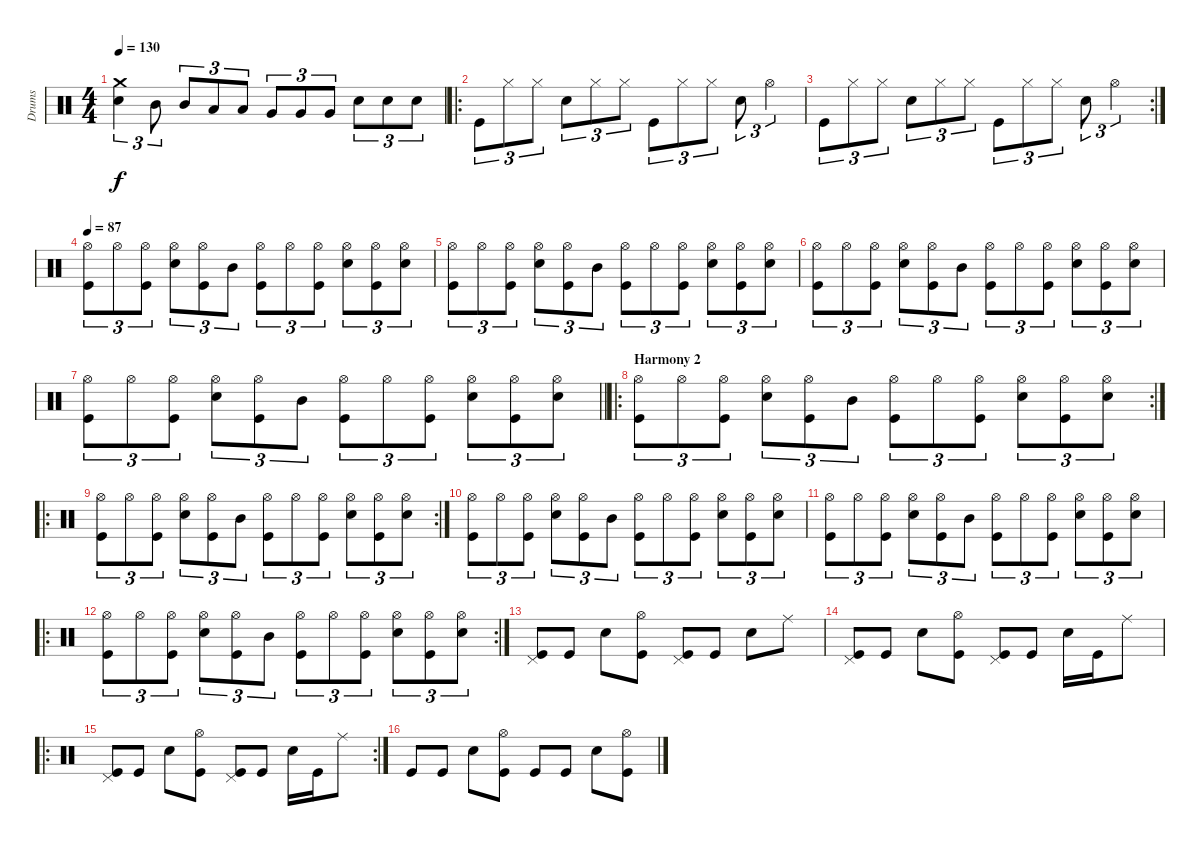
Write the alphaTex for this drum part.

\track ("Drums" "Drums") {instrument percussion}
\staff {score}
\articulation defaults
\ts (4 4)
\tempo 130
\clef neutral
\ks c
("Crash medium (hit)" "Snare (hit) 2").4{tu (3 2) dy f} "Mid Tom (hit)".8{tu (3 2)} "Mid Tom (hit)".8{tu (3 2)} "Low Tom (hit)".8{tu (3 2)} "Low Tom (hit)".8{tu (3 2)} "Very Low Tom (hit)".8{tu (3 2)} "Very Low Tom (hit)".8{tu (3 2)} "Very Low Tom (hit)".8{tu (3 2)} "Snare (hit) 2".8{tu (3 2)} "Snare (hit) 2".8{tu (3 2)} "Snare (hit) 2".8{tu (3 2)} |
\ro "Kick (hit)".8{tu (3 2)} "Hi-Hat (closed)".8{tu (3 2)} "Hi-Hat (closed)".8{tu (3 2)} "Snare (hit) 2".8{tu (3 2)} "Hi-Hat (closed)".8{tu (3 2)} "Hi-Hat (closed)".8{tu (3 2)} "Kick (hit)".8{tu (3 2)} "Hi-Hat (closed)".8{tu (3 2)} "Hi-Hat (closed)".8{tu (3 2)} "Snare (hit) 2".8{tu (3 2)} "Hi-Hat (open)".4{tu (3 2)}
|
\rc 2 "Kick (hit)".8{tu (3 2)} "Hi-Hat (closed)".8{tu (3 2)} "Hi-Hat (closed)".8{tu (3 2)} "Snare (hit) 2".8{tu (3 2)} "Hi-Hat (closed)".8{tu (3 2)} "Hi-Hat (closed)".8{tu (3 2)} "Kick (hit)".8{tu (3 2)} "Hi-Hat (closed)".8{tu (3 2)} "Hi-Hat (closed)".8{tu (3 2)} "Snare (hit) 2".8{tu (3 2)} "Hi-Hat (open)".4{tu (3 2)}
|
\tempo 87
("Hi-Hat (open)" "Kick (hit)").8{tu (3 2)} "Hi-Hat (open)".8{tu (3 2)} ("Hi-Hat (open)" "Kick (hit)").8{tu (3 2)} ("Hi-Hat (open)" "Snare (hit) 2").8{tu (3 2)} ("Hi-Hat (open)" "Kick (hit)").8{tu (3 2)} "Mid Tom (hit)".8{tu (3 2)} ("Hi-Hat (open)" "Kick (hit)").8{tu (3 2)} "Hi-Hat (open)".8{tu (3 2)} ("Hi-Hat (open)" "Kick (hit)").8{tu (3 2)} ("Hi-Hat (open)" "Snare (hit) 2").8{tu (3 2)} ("Hi-Hat (open)" "Kick (hit)").8{tu (3 2)} ("Hi-Hat (open)" "Snare (hit) 2").8{tu (3 2)} |
("Hi-Hat (open)" "Kick (hit)").8{tu (3 2)} "Hi-Hat (open)".8{tu (3 2)} ("Hi-Hat (open)" "Kick (hit)").8{tu (3 2)} ("Hi-Hat (open)" "Snare (hit) 2").8{tu (3 2)} ("Hi-Hat (open)" "Kick (hit)").8{tu (3 2)} "Mid Tom (hit)".8{tu (3 2)} ("Hi-Hat (open)" "Kick (hit)").8{tu (3 2)} "Hi-Hat (open)".8{tu (3 2)} ("Hi-Hat (open)" "Kick (hit)").8{tu (3 2)} ("Hi-Hat (open)" "Snare (hit) 2").8{tu (3 2)} ("Hi-Hat (open)" "Kick (hit)").8{tu (3 2)} ("Hi-Hat (open)" "Snare (hit) 2").8{tu (3 2)} |
("Hi-Hat (open)" "Kick (hit)").8{tu (3 2)} "Hi-Hat (open)".8{tu (3 2)} ("Hi-Hat (open)" "Kick (hit)").8{tu (3 2)} ("Hi-Hat (open)" "Snare (hit) 2").8{tu (3 2)} ("Hi-Hat (open)" "Kick (hit)").8{tu (3 2)} "Mid Tom (hit)".8{tu (3 2)} ("Hi-Hat (open)" "Kick (hit)").8{tu (3 2)} "Hi-Hat (open)".8{tu (3 2)} ("Hi-Hat (open)" "Kick (hit)").8{tu (3 2)} ("Hi-Hat (open)" "Snare (hit) 2").8{tu (3 2)} ("Hi-Hat (open)" "Kick (hit)").8{tu (3 2)} ("Hi-Hat (open)" "Snare (hit) 2").8{tu (3 2)} |
\barLineRight lightlight
("Hi-Hat (open)" "Kick (hit)").8{tu (3 2)} "Hi-Hat (open)".8{tu (3 2)} ("Hi-Hat (open)" "Kick (hit)").8{tu (3 2)} ("Hi-Hat (open)" "Snare (hit) 2").8{tu (3 2)} ("Hi-Hat (open)" "Kick (hit)").8{tu (3 2)} "Mid Tom (hit)".8{tu (3 2)} ("Hi-Hat (open)" "Kick (hit)").8{tu (3 2)} "Hi-Hat (open)".8{tu (3 2)} ("Hi-Hat (open)" "Kick (hit)").8{tu (3 2)} ("Hi-Hat (open)" "Snare (hit) 2").8{tu (3 2)} ("Hi-Hat (open)" "Kick (hit)").8{tu (3 2)} ("Hi-Hat (open)" "Snare (hit) 2").8{tu (3 2)} |
\ro
\rc 2
\section ("" "Harmony 2")
("Hi-Hat (open)" "Kick (hit)").8{tu (3 2)} "Hi-Hat (open)".8{tu (3 2)} ("Hi-Hat (open)" "Kick (hit)").8{tu (3 2)} ("Hi-Hat (open)" "Snare (hit) 2").8{tu (3 2)} ("Hi-Hat (open)" "Kick (hit)").8{tu (3 2)} "Mid Tom (hit)".8{tu (3 2)} ("Hi-Hat (open)" "Kick (hit)").8{tu (3 2)} "Hi-Hat (open)".8{tu (3 2)} ("Hi-Hat (open)" "Kick (hit)").8{tu (3 2)} ("Hi-Hat (open)" "Snare (hit) 2").8{tu (3 2)} ("Hi-Hat (open)" "Kick (hit)").8{tu (3 2)} ("Hi-Hat (open)" "Snare (hit) 2").8{tu (3 2)} |
\ro
\rc 2
("Hi-Hat (open)" "Kick (hit)").8{tu (3 2)} "Hi-Hat (open)".8{tu (3 2)} ("Hi-Hat (open)" "Kick (hit)").8{tu (3 2)} ("Hi-Hat (open)" "Snare (hit) 2").8{tu (3 2)} ("Hi-Hat (open)" "Kick (hit)").8{tu (3 2)} "Mid Tom (hit)".8{tu (3 2)} ("Hi-Hat (open)" "Kick (hit)").8{tu (3 2)} "Hi-Hat (open)".8{tu (3 2)} ("Hi-Hat (open)" "Kick (hit)").8{tu (3 2)} ("Hi-Hat (open)" "Snare (hit) 2").8{tu (3 2)} ("Hi-Hat (open)" "Kick (hit)").8{tu (3 2)} ("Hi-Hat (open)" "Snare (hit) 2").8{tu (3 2)} |
("Hi-Hat (open)" "Kick (hit)").8{tu (3 2)} "Hi-Hat (open)".8{tu (3 2)} ("Hi-Hat (open)" "Kick (hit)").8{tu (3 2)} ("Hi-Hat (open)" "Snare (hit) 2").8{tu (3 2)} ("Hi-Hat (open)" "Kick (hit)").8{tu (3 2)} "Mid Tom (hit)".8{tu (3 2)} ("Hi-Hat (open)" "Kick (hit)").8{tu (3 2)} "Hi-Hat (open)".8{tu (3 2)} ("Hi-Hat (open)" "Kick (hit)").8{tu (3 2)} ("Hi-Hat (open)" "Snare (hit) 2").8{tu (3 2)} ("Hi-Hat (open)" "Kick (hit)").8{tu (3 2)} ("Hi-Hat (open)" "Snare (hit) 2").8{tu (3 2)} |
("Hi-Hat (open)" "Kick (hit)").8{tu (3 2)} "Hi-Hat (open)".8{tu (3 2)} ("Hi-Hat (open)" "Kick (hit)").8{tu (3 2)} ("Hi-Hat (open)" "Snare (hit) 2").8{tu (3 2)} ("Hi-Hat (open)" "Kick (hit)").8{tu (3 2)} "Mid Tom (hit)".8{tu (3 2)} ("Hi-Hat (open)" "Kick (hit)").8{tu (3 2)} "Hi-Hat (open)".8{tu (3 2)} ("Hi-Hat (open)" "Kick (hit)").8{tu (3 2)} ("Hi-Hat (open)" "Snare (hit) 2").8{tu (3 2)} ("Hi-Hat (open)" "Kick (hit)").8{tu (3 2)} ("Hi-Hat (open)" "Snare (hit) 2").8{tu (3 2)} |
\ro
\rc 2
("Hi-Hat (open)" "Kick (hit)").8{tu (3 2)} "Hi-Hat (open)".8{tu (3 2)} ("Hi-Hat (open)" "Kick (hit)").8{tu (3 2)} ("Hi-Hat (open)" "Snare (hit) 2").8{tu (3 2)} ("Hi-Hat (open)" "Kick (hit)").8{tu (3 2)} "Mid Tom (hit)".8{tu (3 2)} ("Hi-Hat (open)" "Kick (hit)").8{tu (3 2)} "Hi-Hat (open)".8{tu (3 2)} ("Hi-Hat (open)" "Kick (hit)").8{tu (3 2)} ("Hi-Hat (open)" "Snare (hit) 2").8{tu (3 2)} ("Hi-Hat (open)" "Kick (hit)").8{tu (3 2)} ("Hi-Hat (open)" "Snare (hit) 2").8{tu (3 2)} |
("Pedal Hi-Hat (hit)" "Kick (hit)").8 "Kick (hit)".8 "Snare (hit) 2".8 ("Hi-Hat (open)" "Kick (hit)").8 ("Pedal Hi-Hat (hit)" "Kick (hit)").8 "Kick (hit)".8 "Snare (hit) 2".8 "Ride (middle)".8 |
("Pedal Hi-Hat (hit)" "Kick (hit)").8 "Kick (hit)".8 "Snare (hit) 2".8 ("Hi-Hat (open)" "Kick (hit)").8 ("Pedal Hi-Hat (hit)" "Kick (hit)").8 "Kick (hit)".8 "Snare (hit) 2".16 "Kick (hit)".16 "Ride (middle)".8 |
\ro
\rc 2
("Pedal Hi-Hat (hit)" "Kick (hit)").8 "Kick (hit)".8 "Snare (hit) 2".8 ("Hi-Hat (open)" "Kick (hit)").8 ("Pedal Hi-Hat (hit)" "Kick (hit)").8 "Kick (hit)".8 "Snare (hit) 2".16 "Kick (hit)".16 "Ride (middle)".8 |
"Kick (hit)".8 "Kick (hit)".8 "Snare (hit) 2".8 ("Hi-Hat (open)" "Kick (hit)").8 "Kick (hit)".8 "Kick (hit)".8 "Snare (hit) 2".8 ("Hi-Hat (open)" "Kick (hit)").8
